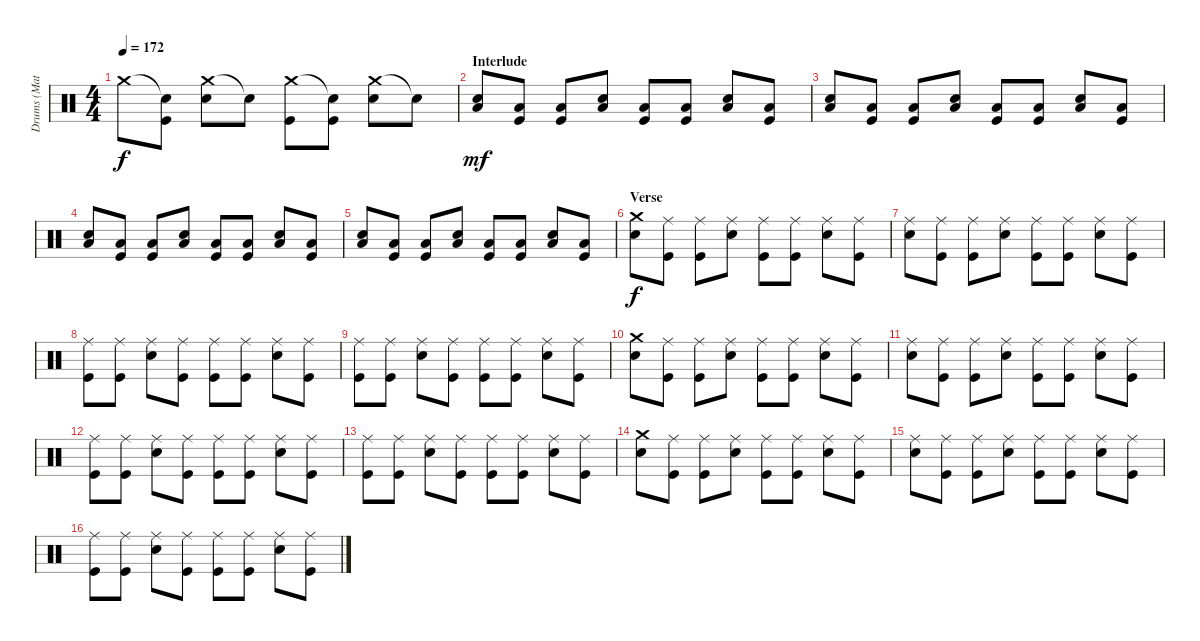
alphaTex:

\track ("Drums (Matt)" "Drums (Mat") {instrument percussion}
\staff {score}
\articulation defaults
\ts (4 4)
\tempo 172
\clef neutral
\ks c "Crash medium (hit)".8{dy f}
("Snare (hit)"{t} "Kick (hit)").8 ("Crash medium (hit)" "Electric Snare (hit)").8 "Snare (hit)"{t}.8 ("Crash medium (hit)" "Kick (hit)").8 ("Snare (hit)"{t} "Kick (hit)").8 ("Crash medium (hit)" "Electric Snare (hit)").8 "Snare (hit)"{t}.8 |
\section ("" "Interlude")
("Electric Snare (hit)" "Low Tom (hit)").8{dy mf} ("Low Tom (hit)" "Kick (hit)").8 ("Low Tom (hit)" "Kick (hit)").8 ("Electric Snare (hit)" "Low Tom (hit)").8 ("Low Tom (hit)" "Kick (hit)").8 ("Low Tom (hit)" "Kick (hit)").8 ("Electric Snare (hit)" "Low Tom (hit)").8 ("Low Tom (hit)" "Kick (hit)").8 |
("Electric Snare (hit)" "Low Tom (hit)").8 ("Low Tom (hit)" "Kick (hit)").8 ("Low Tom (hit)" "Kick (hit)").8 ("Electric Snare (hit)" "Low Tom (hit)").8 ("Low Tom (hit)" "Kick (hit)").8 ("Low Tom (hit)" "Kick (hit)").8 ("Electric Snare (hit)" "Low Tom (hit)").8 ("Low Tom (hit)" "Kick (hit)").8 |
("Electric Snare (hit)" "Low Tom (hit)").8 ("Low Tom (hit)" "Kick (hit)").8 ("Low Tom (hit)" "Kick (hit)").8 ("Electric Snare (hit)" "Low Tom (hit)").8 ("Low Tom (hit)" "Kick (hit)").8 ("Low Tom (hit)" "Kick (hit)").8 ("Electric Snare (hit)" "Low Tom (hit)").8 ("Low Tom (hit)" "Kick (hit)").8 |
("Electric Snare (hit)" "Low Tom (hit)").8 ("Low Tom (hit)" "Kick (hit)").8 ("Low Tom (hit)" "Kick (hit)").8 ("Electric Snare (hit)" "Low Tom (hit)").8 ("Low Tom (hit)" "Kick (hit)").8 ("Low Tom (hit)" "Kick (hit)").8 ("Electric Snare (hit)" "Low Tom (hit)").8 ("Low Tom (hit)" "Kick (hit)").8 |
\section ("" "Verse")
("Crash medium (hit)" "Electric Snare (hit)").8{dy f} ("Ride (middle)" "Kick (hit)").8 ("Ride (middle)" "Kick (hit)").8 ("Ride (middle)" "Electric Snare (hit)").8 ("Ride (middle)" "Kick (hit)").8 ("Ride (middle)" "Kick (hit)").8 ("Ride (middle)" "Electric Snare (hit)").8 ("Ride (middle)" "Kick (hit)").8 |
("Ride (middle)" "Electric Snare (hit)").8 ("Ride (middle)" "Kick (hit)").8 ("Ride (middle)" "Kick (hit)").8 ("Ride (middle)" "Electric Snare (hit)").8 ("Ride (middle)" "Kick (hit)").8 ("Ride (middle)" "Kick (hit)").8 ("Ride (middle)" "Electric Snare (hit)").8 ("Ride (middle)" "Kick (hit)").8 |
("Ride (middle)" "Kick (hit)").8 ("Ride (middle)" "Kick (hit)").8 ("Ride (middle)" "Electric Snare (hit)").8 ("Ride (middle)" "Kick (hit)").8 ("Ride (middle)" "Kick (hit)").8 ("Ride (middle)" "Kick (hit)").8 ("Ride (middle)" "Electric Snare (hit)").8 ("Ride (middle)" "Kick (hit)").8 |
("Ride (middle)" "Kick (hit)").8 ("Ride (middle)" "Kick (hit)").8 ("Ride (middle)" "Electric Snare (hit)").8 ("Ride (middle)" "Kick (hit)").8 ("Ride (middle)" "Kick (hit)").8 ("Ride (middle)" "Kick (hit)").8 ("Ride (middle)" "Electric Snare (hit)").8 ("Ride (middle)" "Kick (hit)").8 |
("Crash medium (hit)" "Electric Snare (hit)").8 ("Ride (middle)" "Kick (hit)").8 ("Ride (middle)" "Kick (hit)").8 ("Ride (middle)" "Electric Snare (hit)").8 ("Ride (middle)" "Kick (hit)").8 ("Ride (middle)" "Kick (hit)").8 ("Ride (middle)" "Electric Snare (hit)").8 ("Ride (middle)" "Kick (hit)").8 |
("Ride (middle)" "Electric Snare (hit)").8 ("Ride (middle)" "Kick (hit)").8 ("Ride (middle)" "Kick (hit)").8 ("Ride (middle)" "Electric Snare (hit)").8 ("Ride (middle)" "Kick (hit)").8 ("Ride (middle)" "Kick (hit)").8 ("Ride (middle)" "Electric Snare (hit)").8 ("Ride (middle)" "Kick (hit)").8 |
("Ride (middle)" "Kick (hit)").8 ("Ride (middle)" "Kick (hit)").8 ("Ride (middle)" "Electric Snare (hit)").8 ("Ride (middle)" "Kick (hit)").8 ("Ride (middle)" "Kick (hit)").8 ("Ride (middle)" "Kick (hit)").8 ("Ride (middle)" "Electric Snare (hit)").8 ("Ride (middle)" "Kick (hit)").8 |
("Ride (middle)" "Kick (hit)").8 ("Ride (middle)" "Kick (hit)").8 ("Ride (middle)" "Electric Snare (hit)").8 ("Ride (middle)" "Kick (hit)").8 ("Ride (middle)" "Kick (hit)").8 ("Ride (middle)" "Kick (hit)").8 ("Ride (middle)" "Electric Snare (hit)").8 ("Ride (middle)" "Kick (hit)").8 |
("Crash medium (hit)" "Electric Snare (hit)").8 ("Ride (middle)" "Kick (hit)").8 ("Ride (middle)" "Kick (hit)").8 ("Ride (middle)" "Electric Snare (hit)").8 ("Ride (middle)" "Kick (hit)").8 ("Ride (middle)" "Kick (hit)").8 ("Ride (middle)" "Electric Snare (hit)").8 ("Ride (middle)" "Kick (hit)").8 |
("Ride (middle)" "Electric Snare (hit)").8 ("Ride (middle)" "Kick (hit)").8 ("Ride (middle)" "Kick (hit)").8 ("Ride (middle)" "Electric Snare (hit)").8 ("Ride (middle)" "Kick (hit)").8 ("Ride (middle)" "Kick (hit)").8 ("Ride (middle)" "Electric Snare (hit)").8 ("Ride (middle)" "Kick (hit)").8 |
("Ride (middle)" "Kick (hit)").8 ("Ride (middle)" "Kick (hit)").8 ("Ride (middle)" "Electric Snare (hit)").8 ("Ride (middle)" "Kick (hit)").8 ("Ride (middle)" "Kick (hit)").8 ("Ride (middle)" "Kick (hit)").8 ("Ride (middle)" "Electric Snare (hit)").8 ("Ride (middle)" "Kick (hit)").8
